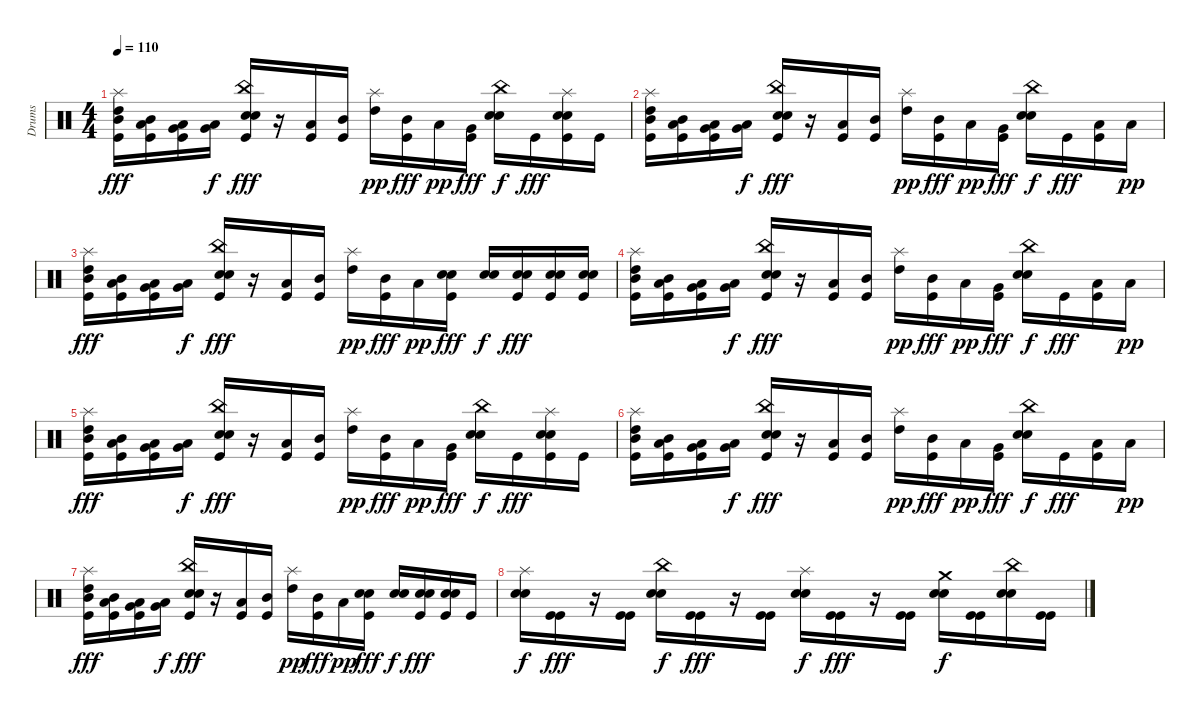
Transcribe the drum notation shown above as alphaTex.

\track ("Drums" "Drums") {instrument percussion}
\staff {score}
\articulation defaults
\ts (4 4)
\tempo 110
\clef neutral
\ks c
("Splash (hit)" "Mid Tom (hit)" "High Tom (hit)" "Kick (hit)").16{dy fff} ("Low Tom (hit)" "Mid Tom (hit)" "Kick (hit)").16 ("Very Low Tom (hit)" "Low Tom (hit)" "Kick (hit)").16 ("Low Floor Tom (hit)" "Very Low Tom (hit)").16{dy f} ("China (hit)" "Electric Snare (hit)" "Snare (hit) 2" "Kick (hit)").16{dy fff} r.16 ("Low Tom (hit)" "Kick (hit)").16 ("Mid Tom (hit)" "Kick (hit)").16 ("Splash (hit)" "High Tom (hit)").16{dy pp} ("Mid Tom (hit)" "Kick (hit)").16{dy fff} "Low Tom (hit)".16{dy pp} ("Very Low Tom (hit)" "Kick (hit)").16{dy fff} ("China (hit)" "Snare (hit) 2" "Electric Snare (hit)").16{dy f} "Kick (hit)".16{dy fff} ("Splash (hit)" "Snare (hit) 2" "Electric Snare (hit)" "Kick (hit)").16 "Kick (hit)".16 |
("Splash (hit)" "Mid Tom (hit)" "High Tom (hit)" "Kick (hit)").16 ("Low Tom (hit)" "Mid Tom (hit)" "Kick (hit)").16 ("Very Low Tom (hit)" "Low Tom (hit)" "Kick (hit)").16 ("Low Floor Tom (hit)" "Very Low Tom (hit)").16{dy f} ("China (hit)" "Electric Snare (hit)" "Snare (hit) 2" "Kick (hit)").16{dy fff} r.16 ("Low Tom (hit)" "Kick (hit)").16 ("Mid Tom (hit)" "Kick (hit)").16 ("Splash (hit)" "High Tom (hit)").16{dy pp} ("Mid Tom (hit)" "Kick (hit)").16{dy fff} "Low Tom (hit)".16{dy pp} ("Very Low Tom (hit)" "Kick (hit)").16{dy fff} ("China (hit)" "Snare (hit) 2" "Electric Snare (hit)").16{dy f} "Kick (hit)".16{dy fff} ("Low Tom (hit)" "Kick (hit)").16 "Low Tom (hit)".16{dy pp} |
("Splash (hit)" "Mid Tom (hit)" "High Tom (hit)" "Kick (hit)").16{dy fff} ("Low Tom (hit)" "Mid Tom (hit)" "Kick (hit)").16 ("Very Low Tom (hit)" "Low Tom (hit)" "Kick (hit)").16 ("Low Floor Tom (hit)" "Very Low Tom (hit)").16{dy f} ("China (hit)" "Electric Snare (hit)" "Snare (hit) 2" "Kick (hit)").16{dy fff} r.16 ("Low Tom (hit)" "Kick (hit)").16 ("Mid Tom (hit)" "Kick (hit)").16 ("Splash (hit)" "High Tom (hit)").16{dy pp} ("Mid Tom (hit)" "Kick (hit)").16{dy fff} "Low Tom (hit)".16{dy pp} ("Snare (hit) 2" "Electric Snare (hit)" "Kick (hit)").16{dy fff} ("Snare (hit) 2" "Electric Snare (hit)").16{dy f} ("Snare (hit) 2" "Electric Snare (hit)" "Kick (hit)").16{dy fff} ("Snare (hit) 2" "Electric Snare (hit)" "Kick (hit)").16 ("Snare (hit) 2" "Electric Snare (hit)" "Kick (hit)").16 |
("Splash (hit)" "Mid Tom (hit)" "High Tom (hit)" "Kick (hit)").16 ("Low Tom (hit)" "Mid Tom (hit)" "Kick (hit)").16 ("Very Low Tom (hit)" "Low Tom (hit)" "Kick (hit)").16 ("Low Floor Tom (hit)" "Very Low Tom (hit)").16{dy f} ("China (hit)" "Electric Snare (hit)" "Snare (hit) 2" "Kick (hit)").16{dy fff} r.16 ("Low Tom (hit)" "Kick (hit)").16 ("Mid Tom (hit)" "Kick (hit)").16 ("Splash (hit)" "High Tom (hit)").16{dy pp} ("Mid Tom (hit)" "Kick (hit)").16{dy fff} "Low Tom (hit)".16{dy pp} ("Very Low Tom (hit)" "Kick (hit)").16{dy fff} ("China (hit)" "Snare (hit) 2" "Electric Snare (hit)").16{dy f} "Kick (hit)".16{dy fff} ("Low Tom (hit)" "Kick (hit)").16 "Low Tom (hit)".16{dy pp} |
("Splash (hit)" "Mid Tom (hit)" "High Tom (hit)" "Kick (hit)").16{dy fff} ("Low Tom (hit)" "Mid Tom (hit)" "Kick (hit)").16 ("Very Low Tom (hit)" "Low Tom (hit)" "Kick (hit)").16 ("Low Floor Tom (hit)" "Very Low Tom (hit)").16{dy f} ("China (hit)" "Electric Snare (hit)" "Snare (hit) 2" "Kick (hit)").16{dy fff} r.16 ("Low Tom (hit)" "Kick (hit)").16 ("Mid Tom (hit)" "Kick (hit)").16 ("Splash (hit)" "High Tom (hit)").16{dy pp} ("Mid Tom (hit)" "Kick (hit)").16{dy fff} "Low Tom (hit)".16{dy pp} ("Very Low Tom (hit)" "Kick (hit)").16{dy fff} ("China (hit)" "Snare (hit) 2" "Electric Snare (hit)").16{dy f} "Kick (hit)".16{dy fff} ("Splash (hit)" "Snare (hit) 2" "Electric Snare (hit)" "Kick (hit)").16 "Kick (hit)".16 |
("Splash (hit)" "Mid Tom (hit)" "High Tom (hit)" "Kick (hit)").16 ("Low Tom (hit)" "Mid Tom (hit)" "Kick (hit)").16 ("Very Low Tom (hit)" "Low Tom (hit)" "Kick (hit)").16 ("Low Floor Tom (hit)" "Very Low Tom (hit)").16{dy f} ("China (hit)" "Electric Snare (hit)" "Snare (hit) 2" "Kick (hit)").16{dy fff} r.16 ("Low Tom (hit)" "Kick (hit)").16 ("Mid Tom (hit)" "Kick (hit)").16 ("Splash (hit)" "High Tom (hit)").16{dy pp} ("Mid Tom (hit)" "Kick (hit)").16{dy fff} "Low Tom (hit)".16{dy pp} ("Very Low Tom (hit)" "Kick (hit)").16{dy fff} ("China (hit)" "Snare (hit) 2" "Electric Snare (hit)").16{dy f} "Kick (hit)".16{dy fff} ("Low Tom (hit)" "Kick (hit)").16 "Low Tom (hit)".16{dy pp} |
("Splash (hit)" "Mid Tom (hit)" "High Tom (hit)" "Kick (hit)").16{dy fff} ("Low Tom (hit)" "Mid Tom (hit)" "Kick (hit)").16 ("Very Low Tom (hit)" "Low Tom (hit)" "Kick (hit)").16 ("Low Floor Tom (hit)" "Very Low Tom (hit)").16{dy f} ("China (hit)" "Electric Snare (hit)" "Snare (hit) 2" "Kick (hit)").16{dy fff} r.16 ("Low Tom (hit)" "Kick (hit)").16 ("Mid Tom (hit)" "Kick (hit)").16 ("Splash (hit)" "High Tom (hit)").16{dy pp} ("Mid Tom (hit)" "Kick (hit)").16{dy fff} "Low Tom (hit)".16{dy pp} ("Snare (hit) 2" "Electric Snare (hit)" "Kick (hit)").16{dy fff} ("Snare (hit) 2" "Electric Snare (hit)").16{dy f} ("Snare (hit) 2" "Electric Snare (hit)" "Kick (hit)").16{dy fff} ("Snare (hit) 2" "Electric Snare (hit)" "Kick (hit)").16 "Kick (hit)".16 |
("Splash (hit)" "Snare (hit) 2" "Electric Snare (hit)").16{dy f} ("Kick (hit)" "Kick (hit)").16{dy fff} r.16 ("Kick (hit)" "Kick (hit)").16 ("China (hit)" "Snare (hit) 2" "Electric Snare (hit)").16{dy f} ("Kick (hit)" "Kick (hit)").16{dy fff} r.16 ("Kick (hit)" "Kick (hit)").16 ("Splash (hit)" "Snare (hit) 2" "Electric Snare (hit)").16{dy f} ("Kick (hit)" "Kick (hit)").16{dy fff} r.16 ("Kick (hit)" "Kick (hit)").16 ("Crash medium (hit)" "Snare (hit) 2" "Electric Snare (hit)").16{dy f} ("Kick (hit)" "Kick (hit)").16 ("China (hit)" "Snare (hit) 2" "Electric Snare (hit)").16 ("Kick (hit)" "Kick (hit)").16
